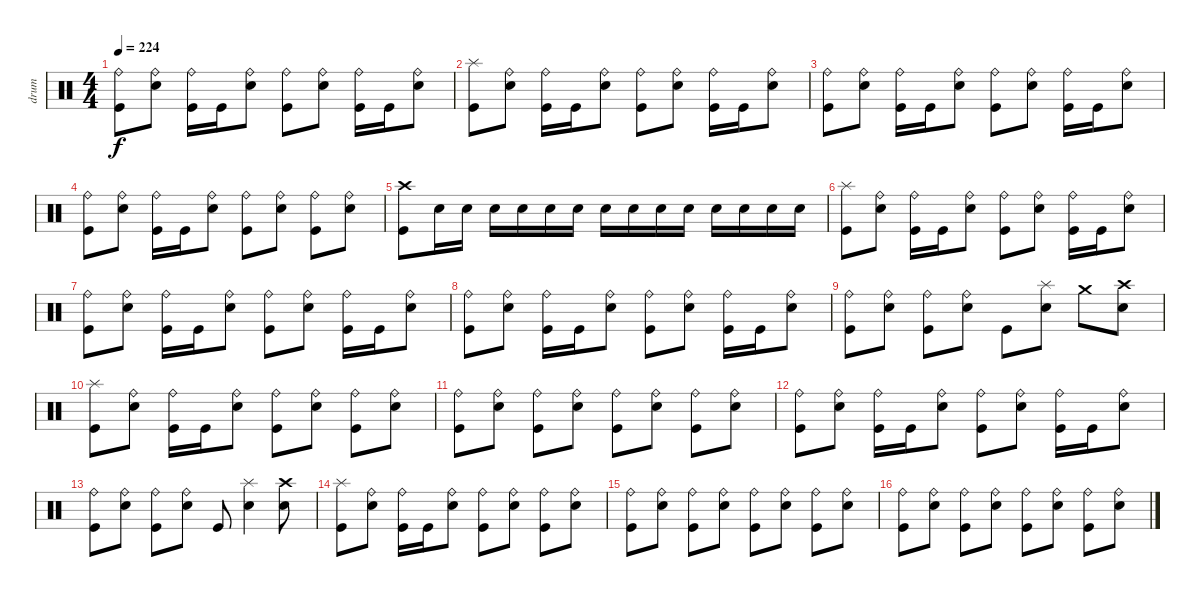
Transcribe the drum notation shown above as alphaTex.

\track ("drum" "drum") {instrument percussion}
\staff {score}
\articulation defaults
\ts (4 4)
\tempo 224
\clef neutral
\ks c
("Kick (hit)" "Ride (bell)").8{dy f} ("Electric Snare (hit)" "Ride (bell)").8 ("Kick (hit)" "Ride (bell)").16 "Kick (hit)".16 ("Electric Snare (hit)" "Ride (bell)").8 ("Kick (hit)" "Ride (bell)").8 ("Electric Snare (hit)" "Ride (bell)").8 ("Kick (hit)" "Ride (bell)").16 "Kick (hit)".16 ("Electric Snare (hit)" "Ride (bell)").8 |
("Kick (hit)" "Splash (hit)").8 ("Electric Snare (hit)" "Ride (bell)").8 ("Kick (hit)" "Ride (bell)").16 "Kick (hit)".16 ("Electric Snare (hit)" "Ride (bell)").8 ("Kick (hit)" "Ride (bell)").8 ("Electric Snare (hit)" "Ride (bell)").8 ("Kick (hit)" "Ride (bell)").16 "Kick (hit)".16 ("Electric Snare (hit)" "Ride (bell)").8 |
("Kick (hit)" "Ride (bell)").8 ("Electric Snare (hit)" "Ride (bell)").8 ("Kick (hit)" "Ride (bell)").16 "Kick (hit)".16 ("Electric Snare (hit)" "Ride (bell)").8 ("Kick (hit)" "Ride (bell)").8 ("Electric Snare (hit)" "Ride (bell)").8 ("Kick (hit)" "Ride (bell)").16 "Kick (hit)".16 ("Electric Snare (hit)" "Ride (bell)").8 |
("Kick (hit)" "Ride (bell)").8 ("Electric Snare (hit)" "Ride (bell)").8 ("Kick (hit)" "Ride (bell)").16 "Kick (hit)".16 ("Electric Snare (hit)" "Ride (bell)").8 ("Kick (hit)" "Ride (bell)").8 ("Electric Snare (hit)" "Ride (bell)").8 ("Kick (hit)" "Ride (bell)").8 ("Electric Snare (hit)" "Ride (bell)").8 |
("Kick (hit)" "Crash high (hit)").8 "Electric Snare (hit)".16 "Electric Snare (hit)".16 "Electric Snare (hit)".16 "Electric Snare (hit)".16 "Electric Snare (hit)".16 "Electric Snare (hit)".16 "Electric Snare (hit)".16 "Electric Snare (hit)".16 "Electric Snare (hit)".16 "Electric Snare (hit)".16 "Electric Snare (hit)".16 "Electric Snare (hit)".16 "Electric Snare (hit)".16 "Electric Snare (hit)".16 |
("Kick (hit)" "Splash (hit)").8 ("Electric Snare (hit)" "Ride (bell)").8 ("Kick (hit)" "Ride (bell)").16 "Kick (hit)".16 ("Electric Snare (hit)" "Ride (bell)").8 ("Kick (hit)" "Ride (bell)").8 ("Electric Snare (hit)" "Ride (bell)").8 ("Kick (hit)" "Ride (bell)").16 "Kick (hit)".16 ("Electric Snare (hit)" "Ride (bell)").8 |
("Kick (hit)" "Ride (bell)").8 ("Electric Snare (hit)" "Ride (bell)").8 ("Kick (hit)" "Ride (bell)").16 "Kick (hit)".16 ("Electric Snare (hit)" "Ride (bell)").8 ("Kick (hit)" "Ride (bell)").8 ("Electric Snare (hit)" "Ride (bell)").8 ("Kick (hit)" "Ride (bell)").16 "Kick (hit)".16 ("Electric Snare (hit)" "Ride (bell)").8 |
("Kick (hit)" "Ride (bell)").8 ("Electric Snare (hit)" "Ride (bell)").8 ("Kick (hit)" "Ride (bell)").16 "Kick (hit)".16 ("Electric Snare (hit)" "Ride (bell)").8 ("Kick (hit)" "Ride (bell)").8 ("Electric Snare (hit)" "Ride (bell)").8 ("Kick (hit)" "Ride (bell)").16 "Kick (hit)".16 ("Electric Snare (hit)" "Ride (bell)").8 |
("Kick (hit)" "Ride (bell)").8 ("Electric Snare (hit)" "Ride (bell)").8 ("Kick (hit)" "Ride (bell)").8 ("Electric Snare (hit)" "Ride (bell)").8 "Kick (hit)".8 ("Electric Snare (hit)" "Splash (hit)").8 "Crash medium (hit)".8 ("Electric Snare (hit)" "Crash high (hit)").8 |
("Kick (hit)" "Splash (hit)").8 ("Electric Snare (hit)" "Ride (bell)").8 ("Kick (hit)" "Ride (bell)").16 "Kick (hit)".16 ("Electric Snare (hit)" "Ride (bell)").8 ("Kick (hit)" "Ride (bell)").8 ("Electric Snare (hit)" "Ride (bell)").8 ("Kick (hit)" "Ride (bell)").8 ("Electric Snare (hit)" "Ride (bell)").8 |
("Kick (hit)" "Ride (bell)").8 ("Electric Snare (hit)" "Ride (bell)").8 ("Kick (hit)" "Ride (bell)").8 ("Electric Snare (hit)" "Ride (bell)").8 ("Kick (hit)" "Ride (bell)").8 ("Electric Snare (hit)" "Ride (bell)").8 ("Kick (hit)" "Ride (bell)").8 ("Electric Snare (hit)" "Ride (bell)").8 |
("Kick (hit)" "Ride (bell)").8 ("Electric Snare (hit)" "Ride (bell)").8 ("Kick (hit)" "Ride (bell)").16 "Kick (hit)".16 ("Electric Snare (hit)" "Ride (bell)").8 ("Kick (hit)" "Ride (bell)").8 ("Electric Snare (hit)" "Ride (bell)").8 ("Kick (hit)" "Ride (bell)").16 "Kick (hit)".16 ("Electric Snare (hit)" "Ride (bell)").8 |
("Kick (hit)" "Ride (bell)").8 ("Electric Snare (hit)" "Ride (bell)").8 ("Kick (hit)" "Ride (bell)").8 ("Electric Snare (hit)" "Ride (bell)").8 "Kick (hit)".8 ("Electric Snare (hit)" "Splash (hit)").4 ("Electric Snare (hit)" "Crash high (hit)").8 |
("Kick (hit)" "Splash (hit)").8 ("Electric Snare (hit)" "Ride (bell)").8 ("Kick (hit)" "Ride (bell)").16 "Kick (hit)".16 ("Electric Snare (hit)" "Ride (bell)").8 ("Kick (hit)" "Ride (bell)").8 ("Electric Snare (hit)" "Ride (bell)").8 ("Kick (hit)" "Ride (bell)").8 ("Electric Snare (hit)" "Ride (bell)").8 |
("Kick (hit)" "Ride (bell)").8 ("Electric Snare (hit)" "Ride (bell)").8 ("Kick (hit)" "Ride (bell)").8 ("Electric Snare (hit)" "Ride (bell)").8 ("Kick (hit)" "Ride (bell)").8 ("Electric Snare (hit)" "Ride (bell)").8 ("Kick (hit)" "Ride (bell)").8 ("Electric Snare (hit)" "Ride (bell)").8 |
("Kick (hit)" "Ride (bell)").8 ("Electric Snare (hit)" "Ride (bell)").8 ("Kick (hit)" "Ride (bell)").8 ("Electric Snare (hit)" "Ride (bell)").8 ("Kick (hit)" "Ride (bell)").8 ("Electric Snare (hit)" "Ride (bell)").8 ("Kick (hit)" "Ride (bell)").8 ("Electric Snare (hit)" "Ride (bell)").8
